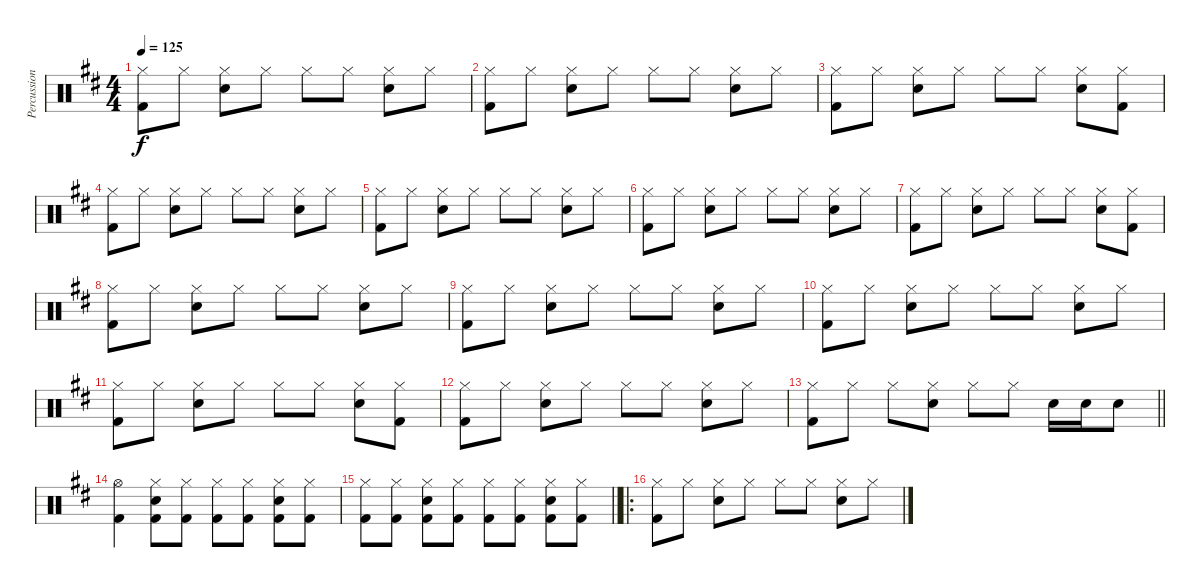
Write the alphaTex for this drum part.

\track ("Percussion" "Percussion") {instrument percussion}
\staff {score}
\articulation defaults
\ts (4 4)
\tempo 125
\clef neutral
\ks d
("Hi-Hat (closed)" "Kick (hit) 2").8{dy f} "Hi-Hat (closed)".8 ("Hi-Hat (closed)" "Snare (hit) 2").8 "Hi-Hat (closed)".8 "Hi-Hat (closed)".8 "Hi-Hat (closed)".8 ("Hi-Hat (closed)" "Snare (hit) 2").8 "Hi-Hat (closed)".8 |
("Hi-Hat (closed)" "Kick (hit) 2").8 "Hi-Hat (closed)".8 ("Hi-Hat (closed)" "Snare (hit) 2").8 "Hi-Hat (closed)".8 "Hi-Hat (closed)".8 "Hi-Hat (closed)".8 ("Hi-Hat (closed)" "Snare (hit) 2").8 "Hi-Hat (closed)".8 |
("Hi-Hat (closed)" "Kick (hit) 2").8 "Hi-Hat (closed)".8 ("Hi-Hat (closed)" "Snare (hit) 2").8 "Hi-Hat (closed)".8 "Hi-Hat (closed)".8 "Hi-Hat (closed)".8 ("Hi-Hat (closed)" "Snare (hit) 2").8 ("Hi-Hat (closed)" "Kick (hit) 2").8 |
("Hi-Hat (closed)" "Kick (hit) 2").8 "Hi-Hat (closed)".8 ("Hi-Hat (closed)" "Snare (hit) 2").8 "Hi-Hat (closed)".8 "Hi-Hat (closed)".8 "Hi-Hat (closed)".8 ("Hi-Hat (closed)" "Snare (hit) 2").8 "Hi-Hat (closed)".8 |
("Hi-Hat (closed)" "Kick (hit) 2").8 "Hi-Hat (closed)".8 ("Hi-Hat (closed)" "Snare (hit) 2").8 "Hi-Hat (closed)".8 "Hi-Hat (closed)".8 "Hi-Hat (closed)".8 ("Hi-Hat (closed)" "Snare (hit) 2").8 "Hi-Hat (closed)".8 |
("Hi-Hat (closed)" "Kick (hit) 2").8 "Hi-Hat (closed)".8 ("Hi-Hat (closed)" "Snare (hit) 2").8 "Hi-Hat (closed)".8 "Hi-Hat (closed)".8 "Hi-Hat (closed)".8 ("Hi-Hat (closed)" "Snare (hit) 2").8 "Hi-Hat (closed)".8 |
("Hi-Hat (closed)" "Kick (hit) 2").8 "Hi-Hat (closed)".8 ("Hi-Hat (closed)" "Snare (hit) 2").8 "Hi-Hat (closed)".8 "Hi-Hat (closed)".8 "Hi-Hat (closed)".8 ("Hi-Hat (closed)" "Snare (hit) 2").8 ("Hi-Hat (closed)" "Kick (hit) 2").8 |
("Hi-Hat (closed)" "Kick (hit) 2").8 "Hi-Hat (closed)".8 ("Hi-Hat (closed)" "Snare (hit) 2").8 "Hi-Hat (closed)".8 "Hi-Hat (closed)".8 "Hi-Hat (closed)".8 ("Hi-Hat (closed)" "Snare (hit) 2").8 "Hi-Hat (closed)".8 |
("Hi-Hat (closed)" "Kick (hit) 2").8 "Hi-Hat (closed)".8 ("Hi-Hat (closed)" "Snare (hit) 2").8 "Hi-Hat (closed)".8 "Hi-Hat (closed)".8 "Hi-Hat (closed)".8 ("Hi-Hat (closed)" "Snare (hit) 2").8 "Hi-Hat (closed)".8 |
("Hi-Hat (closed)" "Kick (hit) 2").8 "Hi-Hat (closed)".8 ("Hi-Hat (closed)" "Snare (hit) 2").8 "Hi-Hat (closed)".8 "Hi-Hat (closed)".8 "Hi-Hat (closed)".8 ("Hi-Hat (closed)" "Snare (hit) 2").8 "Hi-Hat (closed)".8 |
("Hi-Hat (closed)" "Kick (hit) 2").8 "Hi-Hat (closed)".8 ("Hi-Hat (closed)" "Snare (hit) 2").8 "Hi-Hat (closed)".8 "Hi-Hat (closed)".8 "Hi-Hat (closed)".8 ("Hi-Hat (closed)" "Snare (hit) 2").8 ("Hi-Hat (closed)" "Kick (hit) 2").8 |
("Hi-Hat (closed)" "Kick (hit) 2").8 "Hi-Hat (closed)".8 ("Hi-Hat (closed)" "Snare (hit) 2").8 "Hi-Hat (closed)".8 "Hi-Hat (closed)".8 "Hi-Hat (closed)".8 ("Hi-Hat (closed)" "Snare (hit) 2").8 "Hi-Hat (closed)".8 |
\barLineRight lightlight
("Hi-Hat (closed)" "Kick (hit) 2").8 "Hi-Hat (closed)".8 "Hi-Hat (closed)".8 ("Hi-Hat (closed)" "Snare (hit) 2").8 "Hi-Hat (closed)".8 "Hi-Hat (closed)".8 "Snare (hit) 2".16 "Snare (hit) 2".16 "Snare (hit) 2".8 |
("Hi-Hat (open)" "Kick (hit) 2").4 ("Hi-Hat (closed)" "Snare (hit) 2" "Kick (hit) 2").8 ("Hi-Hat (closed)" "Kick (hit) 2").8 ("Hi-Hat (closed)" "Kick (hit) 2").8 ("Hi-Hat (closed)" "Kick (hit) 2").8 ("Hi-Hat (closed)" "Snare (hit) 2" "Kick (hit) 2").8 ("Hi-Hat (closed)" "Kick (hit) 2").8 |
\barLineRight lightlight
("Hi-Hat (closed)" "Kick (hit) 2").8 ("Hi-Hat (closed)" "Kick (hit) 2").8 ("Hi-Hat (closed)" "Kick (hit) 2" "Snare (hit) 2").8 ("Hi-Hat (closed)" "Kick (hit) 2").8 ("Hi-Hat (closed)" "Kick (hit) 2").8 ("Hi-Hat (closed)" "Kick (hit) 2").8 ("Hi-Hat (closed)" "Kick (hit) 2" "Snare (hit) 2").8 ("Hi-Hat (closed)" "Kick (hit) 2").8 |
\ro
("Hi-Hat (closed)" "Kick (hit) 2").8 "Hi-Hat (closed)".8 ("Hi-Hat (closed)" "Snare (hit) 2").8 "Hi-Hat (closed)".8 "Hi-Hat (closed)".8 "Hi-Hat (closed)".8 ("Hi-Hat (closed)" "Snare (hit) 2").8 "Hi-Hat (closed)".8
